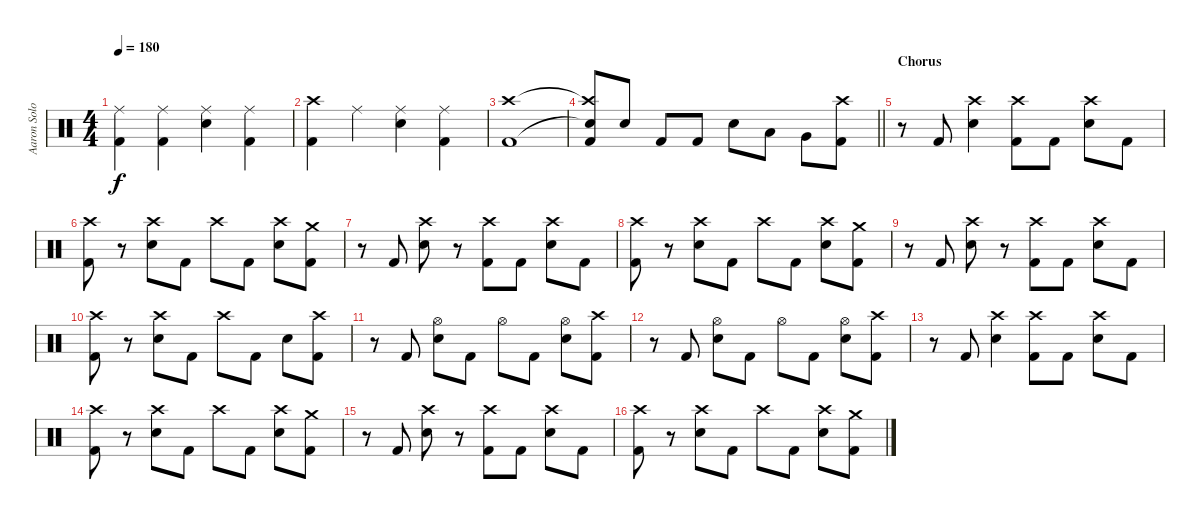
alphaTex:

\track ("Aaron Solowoniuk" "Aaron Solo") {instrument percussion}
\staff {score}
\articulation defaults
\ts (4 4)
\tempo 180
\clef neutral
\ks c
("Ride (middle)" "Kick (hit) 2").4{dy f} ("Ride (middle)" "Kick (hit) 2").4 ("Ride (middle)" "Electric Snare (hit)").4 ("Ride (middle)" "Kick (hit) 2").4 |
("Crash high (hit)" "Kick (hit) 2").4 "Ride (middle)".4 ("Ride (middle)" "Electric Snare (hit)").4 ("Ride (middle)" "Kick (hit) 2").4 |
("Crash high (hit)" "Kick (hit) 2").1 |
\barLineRight lightlight
("Crash high (hit)"{t} "Snare (hit)"{t} "Kick (hit) 2").8 "Electric Snare (hit)".8 "Kick (hit) 2".8 "Kick (hit) 2".8 "Electric Snare (hit)".8 "Low Tom (hit)".8 "Very Low Tom (hit)".8 ("Crash high (hit)" "Kick (hit) 2").8 |
\section ("" "Chorus")
r.8 "Kick (hit) 2".8 ("Crash high (hit)" "Electric Snare (hit)").4 ("Crash high (hit)" "Kick (hit) 2").8 "Kick (hit) 2".8 ("Crash high (hit)" "Electric Snare (hit)").8 "Kick (hit) 2".8 |
("Crash high (hit)" "Kick (hit) 2").8 r.8 ("Crash high (hit)" "Electric Snare (hit)").8 "Kick (hit) 2".8 "Crash high (hit)".8 "Kick (hit) 2".8 ("Crash high (hit)" "Electric Snare (hit)").8 ("Crash medium (hit)" "Kick (hit) 2").8 |
r.8 "Kick (hit) 2".8 ("Crash high (hit)" "Electric Snare (hit)").8 r.8 ("Crash high (hit)" "Kick (hit) 2").8 "Kick (hit) 2".8 ("Crash high (hit)" "Electric Snare (hit)").8 "Kick (hit) 2".8 |
("Crash high (hit)" "Kick (hit) 2").8 r.8 ("Crash high (hit)" "Electric Snare (hit)").8 "Kick (hit) 2".8 "Crash high (hit)".8 "Kick (hit) 2".8 ("Crash high (hit)" "Electric Snare (hit)").8 ("Crash medium (hit)" "Kick (hit) 2").8 |
r.8 "Kick (hit) 2".8 ("Crash high (hit)" "Electric Snare (hit)").8 r.8 ("Crash high (hit)" "Kick (hit) 2").8 "Kick (hit) 2".8 ("Crash high (hit)" "Electric Snare (hit)").8 "Kick (hit) 2".8 |
("Crash high (hit)" "Kick (hit) 2").8 r.8 ("Crash high (hit)" "Electric Snare (hit)").8 "Kick (hit) 2".8 "Crash high (hit)".8 "Kick (hit) 2".8 "Electric Snare (hit)".8 ("Crash high (hit)" "Kick (hit) 2").8 |
r.8 "Kick (hit) 2".8 ("Hi-Hat (open)" "Electric Snare (hit)").8 "Kick (hit) 2".8 "Hi-Hat (open)".8 "Kick (hit) 2".8 ("Hi-Hat (open)" "Electric Snare (hit)").8 ("Crash high (hit)" "Kick (hit) 2").8 |
r.8 "Kick (hit) 2".8 ("Hi-Hat (open)" "Electric Snare (hit)").8 "Kick (hit) 2".8 "Hi-Hat (open)".8 "Kick (hit) 2".8 ("Hi-Hat (open)" "Electric Snare (hit)").8 ("Crash high (hit)" "Kick (hit) 2").8 |
r.8 "Kick (hit) 2".8 ("Crash high (hit)" "Electric Snare (hit)").4 ("Crash high (hit)" "Kick (hit) 2").8 "Kick (hit) 2".8 ("Crash high (hit)" "Electric Snare (hit)").8 "Kick (hit) 2".8 |
("Crash high (hit)" "Kick (hit) 2").8 r.8 ("Crash high (hit)" "Electric Snare (hit)").8 "Kick (hit) 2".8 "Crash high (hit)".8 "Kick (hit) 2".8 ("Crash high (hit)" "Electric Snare (hit)").8 ("Crash medium (hit)" "Kick (hit) 2").8 |
r.8 "Kick (hit) 2".8 ("Crash high (hit)" "Electric Snare (hit)").8 r.8 ("Crash high (hit)" "Kick (hit) 2").8 "Kick (hit) 2".8 ("Crash high (hit)" "Electric Snare (hit)").8 "Kick (hit) 2".8 |
("Crash high (hit)" "Kick (hit) 2").8 r.8 ("Crash high (hit)" "Electric Snare (hit)").8 "Kick (hit) 2".8 "Crash high (hit)".8 "Kick (hit) 2".8 ("Crash high (hit)" "Electric Snare (hit)").8 ("Crash medium (hit)" "Kick (hit) 2").8
